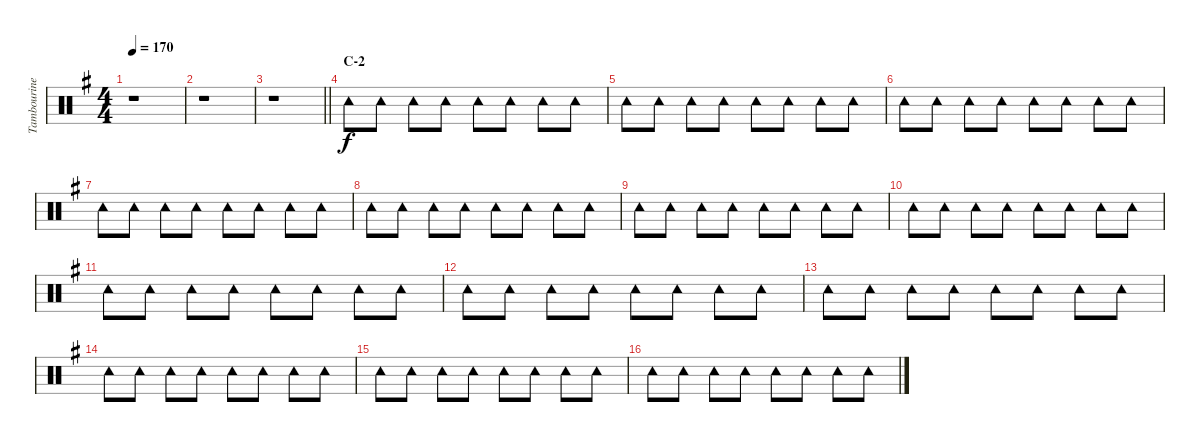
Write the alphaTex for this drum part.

\track ("Tambourine" "Tambourine") {instrument percussion}
\staff {score}
\articulation defaults
\ts (4 4)
\tempo 170
\clef neutral
\ks g
r.1{dy f} |
r.1 |
\barLineRight lightlight
r.1 |
\section ("" "C-2")
"Tambourine (hit)".8 "Tambourine (hit)".8 "Tambourine (hit)".8 "Tambourine (hit)".8 "Tambourine (hit)".8 "Tambourine (hit)".8 "Tambourine (hit)".8 "Tambourine (hit)".8 |
"Tambourine (hit)".8 "Tambourine (hit)".8 "Tambourine (hit)".8 "Tambourine (hit)".8 "Tambourine (hit)".8 "Tambourine (hit)".8 "Tambourine (hit)".8 "Tambourine (hit)".8 |
"Tambourine (hit)".8 "Tambourine (hit)".8 "Tambourine (hit)".8 "Tambourine (hit)".8 "Tambourine (hit)".8 "Tambourine (hit)".8 "Tambourine (hit)".8 "Tambourine (hit)".8 |
"Tambourine (hit)".8 "Tambourine (hit)".8 "Tambourine (hit)".8 "Tambourine (hit)".8 "Tambourine (hit)".8 "Tambourine (hit)".8 "Tambourine (hit)".8 "Tambourine (hit)".8 |
"Tambourine (hit)".8 "Tambourine (hit)".8 "Tambourine (hit)".8 "Tambourine (hit)".8 "Tambourine (hit)".8 "Tambourine (hit)".8 "Tambourine (hit)".8 "Tambourine (hit)".8 |
"Tambourine (hit)".8 "Tambourine (hit)".8 "Tambourine (hit)".8 "Tambourine (hit)".8 "Tambourine (hit)".8 "Tambourine (hit)".8 "Tambourine (hit)".8 "Tambourine (hit)".8 |
"Tambourine (hit)".8 "Tambourine (hit)".8 "Tambourine (hit)".8 "Tambourine (hit)".8 "Tambourine (hit)".8 "Tambourine (hit)".8 "Tambourine (hit)".8 "Tambourine (hit)".8 |
"Tambourine (hit)".8 "Tambourine (hit)".8 "Tambourine (hit)".8 "Tambourine (hit)".8 "Tambourine (hit)".8 "Tambourine (hit)".8 "Tambourine (hit)".8 "Tambourine (hit)".8 |
"Tambourine (hit)".8 "Tambourine (hit)".8 "Tambourine (hit)".8 "Tambourine (hit)".8 "Tambourine (hit)".8 "Tambourine (hit)".8 "Tambourine (hit)".8 "Tambourine (hit)".8 |
"Tambourine (hit)".8 "Tambourine (hit)".8 "Tambourine (hit)".8 "Tambourine (hit)".8 "Tambourine (hit)".8 "Tambourine (hit)".8 "Tambourine (hit)".8 "Tambourine (hit)".8 |
"Tambourine (hit)".8 "Tambourine (hit)".8 "Tambourine (hit)".8 "Tambourine (hit)".8 "Tambourine (hit)".8 "Tambourine (hit)".8 "Tambourine (hit)".8 "Tambourine (hit)".8 |
"Tambourine (hit)".8 "Tambourine (hit)".8 "Tambourine (hit)".8 "Tambourine (hit)".8 "Tambourine (hit)".8 "Tambourine (hit)".8 "Tambourine (hit)".8 "Tambourine (hit)".8 |
"Tambourine (hit)".8 "Tambourine (hit)".8 "Tambourine (hit)".8 "Tambourine (hit)".8 "Tambourine (hit)".8 "Tambourine (hit)".8 "Tambourine (hit)".8 "Tambourine (hit)".8
